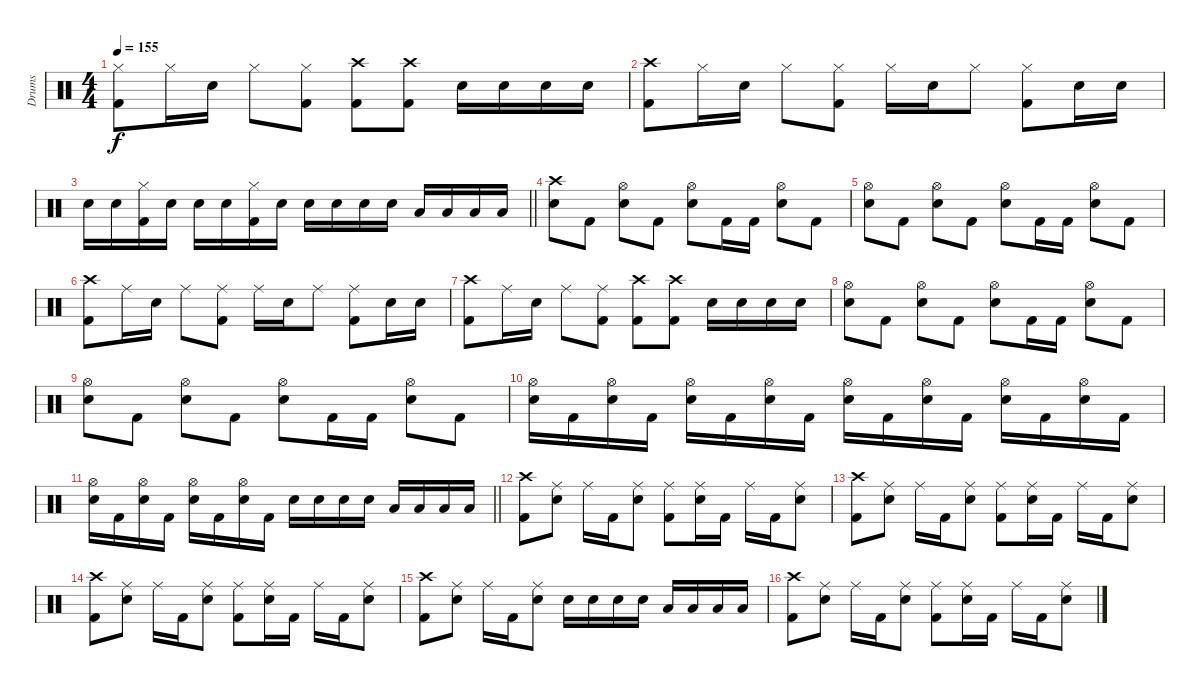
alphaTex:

\track ("Drums" "Drums") {instrument percussion}
\staff {score}
\articulation defaults
\ts (4 4)
\tempo 155
\clef neutral
\ks c
("Hi-Hat (closed)" "Kick (hit) 2").8{dy f} "Hi-Hat (closed)".16 "Snare (hit) 2".16 "Hi-Hat (closed)".8 ("Hi-Hat (closed)" "Kick (hit) 2").8 ("Crash high (hit)" "Kick (hit) 2").8 ("Crash high (hit)" "Kick (hit) 2").8 "Snare (hit) 2".16 "Snare (hit) 2".16 "Snare (hit) 2".16 "Snare (hit) 2".16 |
("Crash high (hit)" "Kick (hit) 2").8 "Hi-Hat (closed)".16 "Snare (hit) 2".16 "Hi-Hat (closed)".8 ("Hi-Hat (closed)" "Kick (hit) 2").8 "Hi-Hat (closed)".16 "Snare (hit) 2".16 "Hi-Hat (closed)".8 ("Hi-Hat (closed)" "Kick (hit) 2").8 "Snare (hit) 2".16 "Snare (hit) 2".16 |
\barLineRight lightlight "Snare (hit) 2".16 "Snare (hit) 2".16
("Hi-Hat (closed)" "Kick (hit) 2").16 "Snare (hit) 2".16 "Snare (hit) 2".16 "Snare (hit) 2".16 ("Hi-Hat (closed)" "Kick (hit) 2").16 "Snare (hit) 2".16 "Snare (hit) 2".16 "Snare (hit) 2".16 "Snare (hit) 2".16 "Snare (hit) 2".16 "Low Tom (hit)".16 "Low Tom (hit)".16 "Low Floor Tom (hit)".16 "Low Floor Tom (hit)".16 |
("Crash high (hit)" "Snare (hit) 2").8 "Kick (hit) 2".8 ("Hi-Hat (open)" "Snare (hit) 2").8 "Kick (hit) 2".8 ("Hi-Hat (open)" "Snare (hit) 2").8 "Kick (hit) 2".16 "Kick (hit) 2".16 ("Hi-Hat (open)" "Snare (hit) 2").8 "Kick (hit) 2".8 |
("Hi-Hat (open)" "Snare (hit) 2").8 "Kick (hit) 2".8 ("Hi-Hat (open)" "Snare (hit) 2").8 "Kick (hit) 2".8 ("Hi-Hat (open)" "Snare (hit) 2").8 "Kick (hit) 2".16 "Kick (hit) 2".16 ("Hi-Hat (open)" "Snare (hit) 2").8 "Kick (hit) 2".8 |
("Crash high (hit)" "Kick (hit) 2").8 "Ride (middle)".16 "Snare (hit) 2".16 "Ride (middle)".8 ("Ride (middle)" "Kick (hit) 2").8 "Ride (middle)".16 "Snare (hit) 2".16 "Ride (middle)".8 ("Ride (middle)" "Kick (hit) 2").8 "Snare (hit) 2".16 "Snare (hit) 2".16 |
("Crash high (hit)" "Kick (hit) 2").8 "Ride (middle)".16 "Snare (hit) 2".16 "Ride (middle)".8 ("Ride (middle)" "Kick (hit) 2").8 ("Crash high (hit)" "Kick (hit) 2").8 ("Crash high (hit)" "Kick (hit) 2").8 "Snare (hit) 2".16 "Snare (hit) 2".16 "Snare (hit) 2".16 "Snare (hit) 2".16 |
("Hi-Hat (open)" "Snare (hit) 2").8 "Kick (hit) 2".8 ("Hi-Hat (open)" "Snare (hit) 2").8 "Kick (hit) 2".8 ("Hi-Hat (open)" "Snare (hit) 2").8 "Kick (hit) 2".16 "Kick (hit) 2".16 ("Hi-Hat (open)" "Snare (hit) 2").8 "Kick (hit) 2".8 |
("Hi-Hat (open)" "Snare (hit) 2").8 "Kick (hit) 2".8 ("Hi-Hat (open)" "Snare (hit) 2").8 "Kick (hit) 2".8 ("Hi-Hat (open)" "Snare (hit) 2").8 "Kick (hit) 2".16 "Kick (hit) 2".16 ("Hi-Hat (open)" "Snare (hit) 2").8 "Kick (hit) 2".8 |
("Hi-Hat (open)" "Snare (hit) 2").16 "Kick (hit) 2".16 ("Hi-Hat (open)" "Snare (hit) 2").16 "Kick (hit) 2".16 ("Hi-Hat (open)" "Snare (hit) 2").16 "Kick (hit) 2".16 ("Hi-Hat (open)" "Snare (hit) 2").16 "Kick (hit) 2".16 ("Hi-Hat (open)" "Snare (hit) 2").16 "Kick (hit) 2".16 ("Hi-Hat (open)" "Snare (hit) 2").16 "Kick (hit) 2".16 ("Hi-Hat (open)" "Snare (hit) 2").16 "Kick (hit) 2".16 ("Hi-Hat (open)" "Snare (hit) 2").16 "Kick (hit) 2".16 |
\barLineRight lightlight
("Hi-Hat (open)" "Snare (hit) 2").16 "Kick (hit) 2".16 ("Hi-Hat (open)" "Snare (hit) 2").16 "Kick (hit) 2".16 ("Hi-Hat (open)" "Snare (hit) 2").16 "Kick (hit) 2".16 ("Hi-Hat (open)" "Snare (hit) 2").16 "Kick (hit) 2".16 "Snare (hit) 2".16 "Snare (hit) 2".16 "Snare (hit) 2".16 "Snare (hit) 2".16 "Low Tom (hit)".16 "Low Tom (hit)".16 "Low Floor Tom (hit)".16 "Low Floor Tom (hit)".16 |
("Crash high (hit)" "Kick (hit) 2").8 ("Ride (middle)" "Snare (hit) 2").8 "Ride (middle)".16 "Kick (hit) 2".16 ("Ride (middle)" "Snare (hit) 2").8 ("Ride (middle)" "Kick (hit) 2").8 ("Ride (middle)" "Snare (hit) 2").16 "Kick (hit) 2".16 "Ride (middle)".16 "Kick (hit) 2".16 ("Ride (middle)" "Snare (hit) 2").8 |
("Crash high (hit)" "Kick (hit) 2").8 ("Ride (middle)" "Snare (hit) 2").8 "Ride (middle)".16 "Kick (hit) 2".16 ("Ride (middle)" "Snare (hit) 2").8 ("Ride (middle)" "Kick (hit) 2").8 ("Ride (middle)" "Snare (hit) 2").16 "Kick (hit) 2".16 "Ride (middle)".16 "Kick (hit) 2".16 ("Ride (middle)" "Snare (hit) 2").8 |
("Crash high (hit)" "Kick (hit) 2").8 ("Ride (middle)" "Snare (hit) 2").8 "Ride (middle)".16 "Kick (hit) 2".16 ("Ride (middle)" "Snare (hit) 2").8 ("Ride (middle)" "Kick (hit) 2").8 ("Ride (middle)" "Snare (hit) 2").16 "Kick (hit) 2".16 "Ride (middle)".16 "Kick (hit) 2".16 ("Ride (middle)" "Snare (hit) 2").8 |
("Crash high (hit)" "Kick (hit) 2").8 ("Ride (middle)" "Snare (hit) 2").8 "Ride (middle)".16 "Kick (hit) 2".16 ("Ride (middle)" "Snare (hit) 2").8 "Snare (hit) 2".16 "Snare (hit) 2".16 "Snare (hit) 2".16 "Snare (hit) 2".16 "Low Tom (hit)".16 "Low Tom (hit)".16 "Low Floor Tom (hit)".16 "Low Floor Tom (hit)".16 |
("Crash high (hit)" "Kick (hit) 2").8 ("Ride (middle)" "Snare (hit) 2").8 "Ride (middle)".16 "Kick (hit) 2".16 ("Ride (middle)" "Snare (hit) 2").8 ("Ride (middle)" "Kick (hit) 2").8 ("Ride (middle)" "Snare (hit) 2").16 "Kick (hit) 2".16 "Ride (middle)".16 "Kick (hit) 2".16 ("Ride (middle)" "Snare (hit) 2").8
